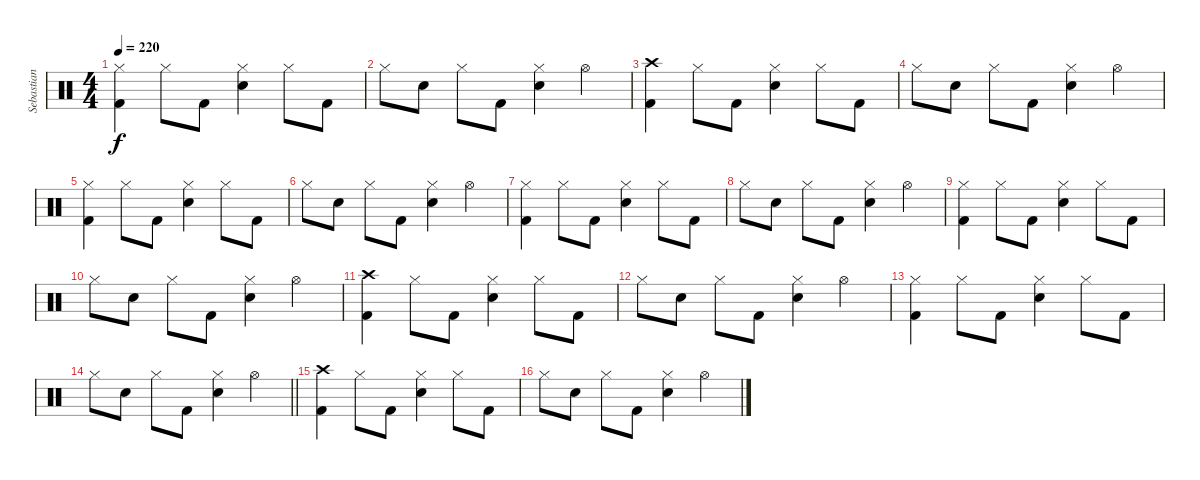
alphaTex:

\track ("Sebastian" "Sebastian") {instrument percussion}
\staff {score}
\articulation defaults
\ts (4 4)
\tempo 220
\clef neutral
\ks c
("Hi-Hat (closed)" "Kick (hit) 2").4{dy f} "Hi-Hat (closed)".8 "Kick (hit) 2".8 ("Hi-Hat (closed)" "Snare (hit) 2").4 "Hi-Hat (closed)".8 "Kick (hit) 2".8 |
"Hi-Hat (closed)".8 "Snare (hit) 2".8 "Hi-Hat (closed)".8 "Kick (hit) 2".8 ("Hi-Hat (closed)" "Snare (hit) 2").4 "Hi-Hat (open)".4 |
("Crash high (hit)" "Kick (hit) 2").4 "Hi-Hat (closed)".8 "Kick (hit) 2".8 ("Hi-Hat (closed)" "Snare (hit) 2").4 "Hi-Hat (closed)".8 "Kick (hit) 2".8 |
"Hi-Hat (closed)".8 "Snare (hit) 2".8 "Hi-Hat (closed)".8 "Kick (hit) 2".8 ("Hi-Hat (closed)" "Snare (hit) 2").4 "Hi-Hat (open)".4 |
("Hi-Hat (closed)" "Kick (hit) 2").4 "Hi-Hat (closed)".8 "Kick (hit) 2".8 ("Hi-Hat (closed)" "Snare (hit) 2").4 "Hi-Hat (closed)".8 "Kick (hit) 2".8 |
"Hi-Hat (closed)".8 "Snare (hit) 2".8 "Hi-Hat (closed)".8 "Kick (hit) 2".8 ("Hi-Hat (closed)" "Snare (hit) 2").4 "Hi-Hat (open)".4 |
("Hi-Hat (closed)" "Kick (hit) 2").4 "Hi-Hat (closed)".8 "Kick (hit) 2".8 ("Hi-Hat (closed)" "Snare (hit) 2").4 "Hi-Hat (closed)".8 "Kick (hit) 2".8 |
"Hi-Hat (closed)".8 "Snare (hit) 2".8 "Hi-Hat (closed)".8 "Kick (hit) 2".8 ("Hi-Hat (closed)" "Snare (hit) 2").4 "Hi-Hat (open)".4 |
("Hi-Hat (closed)" "Kick (hit) 2").4 "Hi-Hat (closed)".8 "Kick (hit) 2".8 ("Hi-Hat (closed)" "Snare (hit) 2").4 "Hi-Hat (closed)".8 "Kick (hit) 2".8 |
"Hi-Hat (closed)".8 "Snare (hit) 2".8 "Hi-Hat (closed)".8 "Kick (hit) 2".8 ("Hi-Hat (closed)" "Snare (hit) 2").4 "Hi-Hat (open)".4 |
("Crash high (hit)" "Kick (hit) 2").4 "Hi-Hat (closed)".8 "Kick (hit) 2".8 ("Hi-Hat (closed)" "Snare (hit) 2").4 "Hi-Hat (closed)".8 "Kick (hit) 2".8 |
"Hi-Hat (closed)".8 "Snare (hit) 2".8 "Hi-Hat (closed)".8 "Kick (hit) 2".8 ("Hi-Hat (closed)" "Snare (hit) 2").4 "Hi-Hat (open)".4 |
("Hi-Hat (closed)" "Kick (hit) 2").4 "Hi-Hat (closed)".8 "Kick (hit) 2".8 ("Hi-Hat (closed)" "Snare (hit) 2").4 "Hi-Hat (closed)".8 "Kick (hit) 2".8 |
\barLineRight lightlight "Hi-Hat (closed)".8 "Snare (hit) 2".8 "Hi-Hat (closed)".8 "Kick (hit) 2".8
("Hi-Hat (closed)" "Snare (hit) 2").4 "Hi-Hat (open)".4 |
("Crash high (hit)" "Kick (hit) 2").4 "Hi-Hat (closed)".8 "Kick (hit) 2".8 ("Hi-Hat (closed)" "Snare (hit) 2").4 "Hi-Hat (closed)".8 "Kick (hit) 2".8 |
"Hi-Hat (closed)".8 "Snare (hit) 2".8 "Hi-Hat (closed)".8 "Kick (hit) 2".8 ("Hi-Hat (closed)" "Snare (hit) 2").4 "Hi-Hat (open)".4
